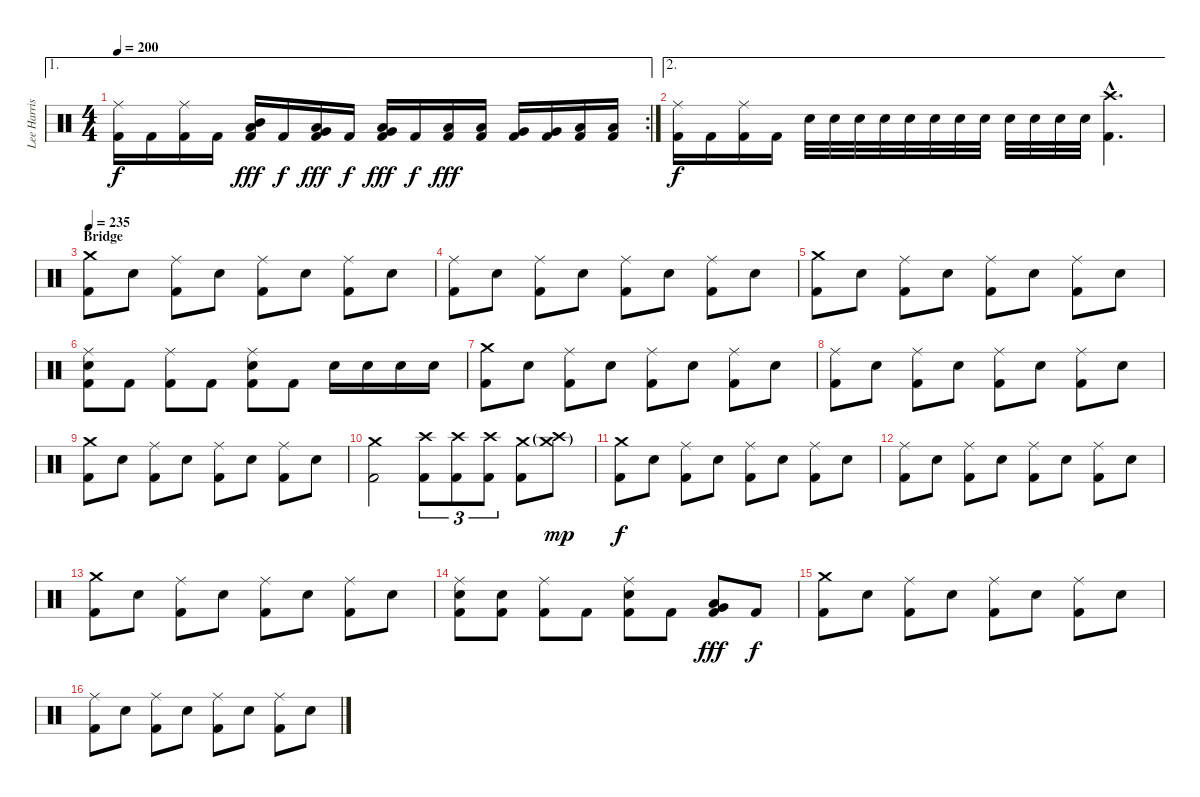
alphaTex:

\track ("Lee Harrison" "Lee Harris") {instrument percussion}
\staff {score}
\articulation defaults
\ae 1
\rc 2
\ts (4 4)
\tempo 200
\clef neutral
\ks c
("Ride (middle)" "Kick (hit) 2").16{dy f} "Kick (hit) 2".16 ("Ride (middle)" "Kick (hit) 2").16 "Kick (hit) 2".16 ("Mid Tom (hit)" "Low Tom (hit)" "Kick (hit) 2").16{dy fff} "Kick (hit) 2".16{dy f} ("Low Tom (hit)" "Very Low Tom (hit)" "Kick (hit) 2").16{dy fff} "Kick (hit) 2".16{dy f} ("Very Low Tom (hit)" "Low Floor Tom (hit)" "Kick (hit) 2").16{dy fff} "Kick (hit) 2".16{dy f} ("Low Tom (hit)" "Kick (hit) 2").16{dy fff} ("Low Tom (hit)" "Kick (hit) 2").16 ("Very Low Tom (hit)" "Kick (hit) 2").16 ("Very Low Tom (hit)" "Kick (hit) 2").16 ("Low Floor Tom (hit)" "Kick (hit) 2").16 ("Low Floor Tom (hit)" "Kick (hit) 2").16 |
\ae 2
("Ride (middle)" "Kick (hit) 2").16{dy f} "Kick (hit) 2".16 ("Ride (middle)" "Kick (hit) 2").16 "Kick (hit) 2".16 "Electric Snare (hit)".32 "Electric Snare (hit)".32 "Electric Snare (hit)".32 "Electric Snare (hit)".32 "Electric Snare (hit)".32 "Electric Snare (hit)".32 "Electric Snare (hit)".32 "Electric Snare (hit)".32 "Electric Snare (hit)".32 "Electric Snare (hit)".32 "Electric Snare (hit)".32 "Electric Snare (hit)".32 ("Crash high (hit)"{hac} "Kick (hit) 2"{hac}).4{d} |
\section ("" "Bridge")
\tempo 235
("Crash medium (hit)" "Kick (hit) 2").8 "Electric Snare (hit)".8 ("Ride (middle)" "Kick (hit) 2").8 "Electric Snare (hit)".8 ("Ride (middle)" "Kick (hit) 2").8 "Electric Snare (hit)".8 ("Ride (middle)" "Kick (hit) 2").8 "Electric Snare (hit)".8 |
("Ride (middle)" "Kick (hit) 2").8 "Electric Snare (hit)".8 ("Ride (middle)" "Kick (hit) 2").8 "Electric Snare (hit)".8 ("Ride (middle)" "Kick (hit) 2").8 "Electric Snare (hit)".8 ("Ride (middle)" "Kick (hit) 2").8 "Electric Snare (hit)".8 |
("Crash medium (hit)" "Kick (hit) 2").8 "Electric Snare (hit)".8 ("Ride (middle)" "Kick (hit) 2").8 "Electric Snare (hit)".8 ("Ride (middle)" "Kick (hit) 2").8 "Electric Snare (hit)".8 ("Ride (middle)" "Kick (hit) 2").8 "Electric Snare (hit)".8 |
("Ride (middle)" "Electric Snare (hit)" "Kick (hit) 2").8 "Kick (hit) 2".8 ("Ride (middle)" "Kick (hit) 2").8 "Kick (hit) 2".8 ("Ride (middle)" "Electric Snare (hit)" "Kick (hit) 2").8 "Kick (hit) 2".8 "Electric Snare (hit)".16 "Electric Snare (hit)".16 "Electric Snare (hit)".16 "Electric Snare (hit)".16 |
("Crash medium (hit)" "Kick (hit) 2").8 "Electric Snare (hit)".8 ("Ride (middle)" "Kick (hit) 2").8 "Electric Snare (hit)".8 ("Ride (middle)" "Kick (hit) 2").8 "Electric Snare (hit)".8 ("Ride (middle)" "Kick (hit) 2").8 "Electric Snare (hit)".8 |
("Ride (middle)" "Kick (hit) 2").8 "Electric Snare (hit)".8 ("Ride (middle)" "Kick (hit) 2").8 "Electric Snare (hit)".8 ("Ride (middle)" "Kick (hit) 2").8 "Electric Snare (hit)".8 ("Ride (middle)" "Kick (hit) 2").8 "Electric Snare (hit)".8 |
("Crash medium (hit)" "Kick (hit) 2").8 "Electric Snare (hit)".8 ("Ride (middle)" "Kick (hit) 2").8 "Electric Snare (hit)".8 ("Ride (middle)" "Kick (hit) 2").8 "Electric Snare (hit)".8 ("Ride (middle)" "Kick (hit) 2").8 "Electric Snare (hit)".8 |
("Crash medium (hit)" "Kick (hit) 2").2 ("Crash high (hit)" "Kick (hit) 2").8{tu (3 2)} ("Crash high (hit)" "Kick (hit) 2").8{tu (3 2)} ("Crash high (hit)" "Kick (hit) 2").8{tu (3 2)} ("Crash medium (hit)" "Kick (hit) 2").8 ("Crash medium (hit)"{g} "Crash high (hit)"{g}).8{dy mp} |
("Crash medium (hit)" "Kick (hit) 2").8{dy f} "Electric Snare (hit)".8 ("Ride (middle)" "Kick (hit) 2").8 "Electric Snare (hit)".8 ("Ride (middle)" "Kick (hit) 2").8 "Electric Snare (hit)".8 ("Ride (middle)" "Kick (hit) 2").8 "Electric Snare (hit)".8 |
("Ride (middle)" "Kick (hit) 2").8 "Electric Snare (hit)".8 ("Ride (middle)" "Kick (hit) 2").8 "Electric Snare (hit)".8 ("Ride (middle)" "Kick (hit) 2").8 "Electric Snare (hit)".8 ("Ride (middle)" "Kick (hit) 2").8 "Electric Snare (hit)".8 |
("Crash medium (hit)" "Kick (hit) 2").8 "Electric Snare (hit)".8 ("Ride (middle)" "Kick (hit) 2").8 "Electric Snare (hit)".8 ("Ride (middle)" "Kick (hit) 2").8 "Electric Snare (hit)".8 ("Ride (middle)" "Kick (hit) 2").8 "Electric Snare (hit)".8 |
("Ride (middle)" "Electric Snare (hit)" "Kick (hit) 2").8 ("Electric Snare (hit)" "Kick (hit) 2").8 ("Ride (middle)" "Kick (hit) 2").8 "Kick (hit) 2".8 ("Ride (middle)" "Electric Snare (hit)" "Kick (hit) 2").8 "Kick (hit) 2".8 ("Very Low Tom (hit)" "Low Floor Tom (hit)" "Kick (hit) 2").8{dy fff} "Kick (hit) 2".8{dy f} |
("Crash medium (hit)" "Kick (hit) 2").8 "Electric Snare (hit)".8 ("Ride (middle)" "Kick (hit) 2").8 "Electric Snare (hit)".8 ("Ride (middle)" "Kick (hit) 2").8 "Electric Snare (hit)".8 ("Ride (middle)" "Kick (hit) 2").8 "Electric Snare (hit)".8 |
("Ride (middle)" "Kick (hit) 2").8 "Electric Snare (hit)".8 ("Ride (middle)" "Kick (hit) 2").8 "Electric Snare (hit)".8 ("Ride (middle)" "Kick (hit) 2").8 "Electric Snare (hit)".8 ("Ride (middle)" "Kick (hit) 2").8 "Electric Snare (hit)".8
